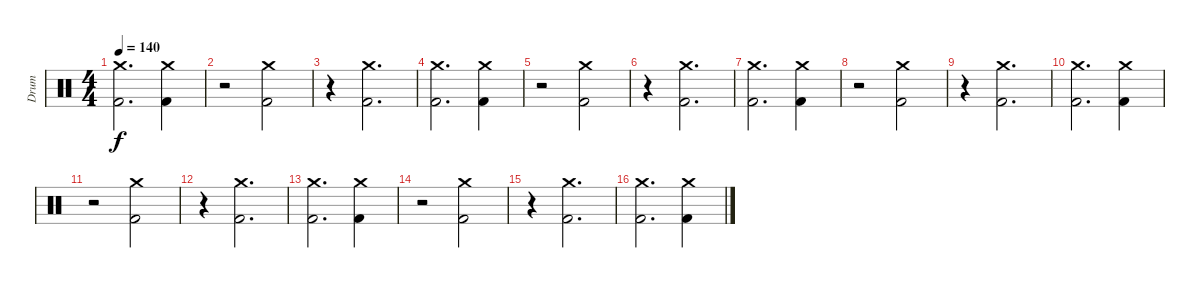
\track ("Drum" "Drum") {instrument percussion}
\staff {score}
\articulation defaults
\ts (4 4)
\tempo 140
\clef neutral
\ks c
("Crash medium (hit)" "Kick (hit) 2").2{d dy f} ("Crash medium (hit)" "Kick (hit) 2").4 |
r.2 ("Crash medium (hit)" "Kick (hit) 2").2 |
r.4 ("Crash medium (hit)" "Kick (hit) 2").2{d} |
("Crash medium (hit)" "Kick (hit) 2").2{d} ("Crash medium (hit)" "Kick (hit) 2").4 |
r.2 ("Crash medium (hit)" "Kick (hit) 2").2 |
r.4 ("Crash medium (hit)" "Kick (hit) 2").2{d} |
("Crash medium (hit)" "Kick (hit) 2").2{d} ("Crash medium (hit)" "Kick (hit) 2").4 |
r.2 ("Crash medium (hit)" "Kick (hit) 2").2 |
r.4 ("Crash medium (hit)" "Kick (hit) 2").2{d} |
("Crash medium (hit)" "Kick (hit) 2").2{d} ("Crash medium (hit)" "Kick (hit) 2").4 |
r.2 ("Crash medium (hit)" "Kick (hit) 2").2 |
r.4 ("Crash medium (hit)" "Kick (hit) 2").2{d} |
("Crash medium (hit)" "Kick (hit) 2").2{d} ("Crash medium (hit)" "Kick (hit) 2").4 |
r.2 ("Crash medium (hit)" "Kick (hit) 2").2 |
r.4 ("Crash medium (hit)" "Kick (hit) 2").2{d} |
("Crash medium (hit)" "Kick (hit) 2").2{d} ("Crash medium (hit)" "Kick (hit) 2").4
